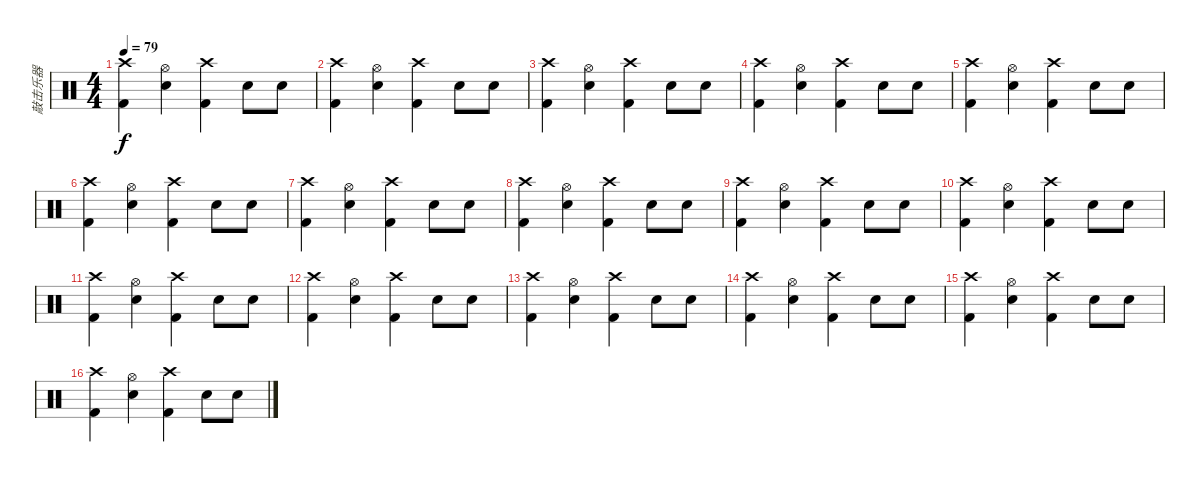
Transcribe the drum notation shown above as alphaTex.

\track ("敲击乐器" "敲击乐器") {instrument percussion}
\staff {score}
\articulation defaults
\ts (4 4)
\tempo 79
\clef neutral
\ks c
("Crash high (hit)" "Kick (hit) 2").4{dy f} ("Hi-Hat (open)" "Electric Snare (hit)").4 ("Crash high (hit)" "Kick (hit) 2").4 "Electric Snare (hit)".8 "Electric Snare (hit)".8 |
("Crash high (hit)" "Kick (hit) 2").4 ("Hi-Hat (open)" "Electric Snare (hit)").4 ("Crash high (hit)" "Kick (hit) 2").4 "Electric Snare (hit)".8 "Electric Snare (hit)".8 |
("Crash high (hit)" "Kick (hit) 2").4 ("Hi-Hat (open)" "Electric Snare (hit)").4 ("Crash high (hit)" "Kick (hit) 2").4 "Electric Snare (hit)".8 "Electric Snare (hit)".8 |
("Crash high (hit)" "Kick (hit) 2").4 ("Hi-Hat (open)" "Electric Snare (hit)").4 ("Crash high (hit)" "Kick (hit) 2").4 "Electric Snare (hit)".8 "Electric Snare (hit)".8 |
("Crash high (hit)" "Kick (hit) 2").4 ("Hi-Hat (open)" "Electric Snare (hit)").4 ("Crash high (hit)" "Kick (hit) 2").4 "Electric Snare (hit)".8 "Electric Snare (hit)".8 |
("Crash high (hit)" "Kick (hit) 2").4 ("Hi-Hat (open)" "Electric Snare (hit)").4 ("Crash high (hit)" "Kick (hit) 2").4 "Electric Snare (hit)".8 "Electric Snare (hit)".8 |
("Crash high (hit)" "Kick (hit) 2").4 ("Hi-Hat (open)" "Electric Snare (hit)").4 ("Crash high (hit)" "Kick (hit) 2").4 "Electric Snare (hit)".8 "Electric Snare (hit)".8 |
("Crash high (hit)" "Kick (hit) 2").4 ("Hi-Hat (open)" "Electric Snare (hit)").4 ("Crash high (hit)" "Kick (hit) 2").4 "Electric Snare (hit)".8 "Electric Snare (hit)".8 |
("Crash high (hit)" "Kick (hit) 2").4 ("Hi-Hat (open)" "Electric Snare (hit)").4 ("Crash high (hit)" "Kick (hit) 2").4 "Electric Snare (hit)".8 "Electric Snare (hit)".8 |
("Crash high (hit)" "Kick (hit) 2").4 ("Hi-Hat (open)" "Electric Snare (hit)").4 ("Crash high (hit)" "Kick (hit) 2").4 "Electric Snare (hit)".8 "Electric Snare (hit)".8 |
("Crash high (hit)" "Kick (hit) 2").4 ("Hi-Hat (open)" "Electric Snare (hit)").4 ("Crash high (hit)" "Kick (hit) 2").4 "Electric Snare (hit)".8 "Electric Snare (hit)".8 |
("Crash high (hit)" "Kick (hit) 2").4 ("Hi-Hat (open)" "Electric Snare (hit)").4 ("Crash high (hit)" "Kick (hit) 2").4 "Electric Snare (hit)".8 "Electric Snare (hit)".8 |
("Crash high (hit)" "Kick (hit) 2").4 ("Hi-Hat (open)" "Electric Snare (hit)").4 ("Crash high (hit)" "Kick (hit) 2").4 "Electric Snare (hit)".8 "Electric Snare (hit)".8 |
("Crash high (hit)" "Kick (hit) 2").4 ("Hi-Hat (open)" "Electric Snare (hit)").4 ("Crash high (hit)" "Kick (hit) 2").4 "Electric Snare (hit)".8 "Electric Snare (hit)".8 |
("Crash high (hit)" "Kick (hit) 2").4 ("Hi-Hat (open)" "Electric Snare (hit)").4 ("Crash high (hit)" "Kick (hit) 2").4 "Electric Snare (hit)".8 "Electric Snare (hit)".8 |
("Crash high (hit)" "Kick (hit) 2").4 ("Hi-Hat (open)" "Electric Snare (hit)").4 ("Crash high (hit)" "Kick (hit) 2").4 "Electric Snare (hit)".8 "Electric Snare (hit)".8
